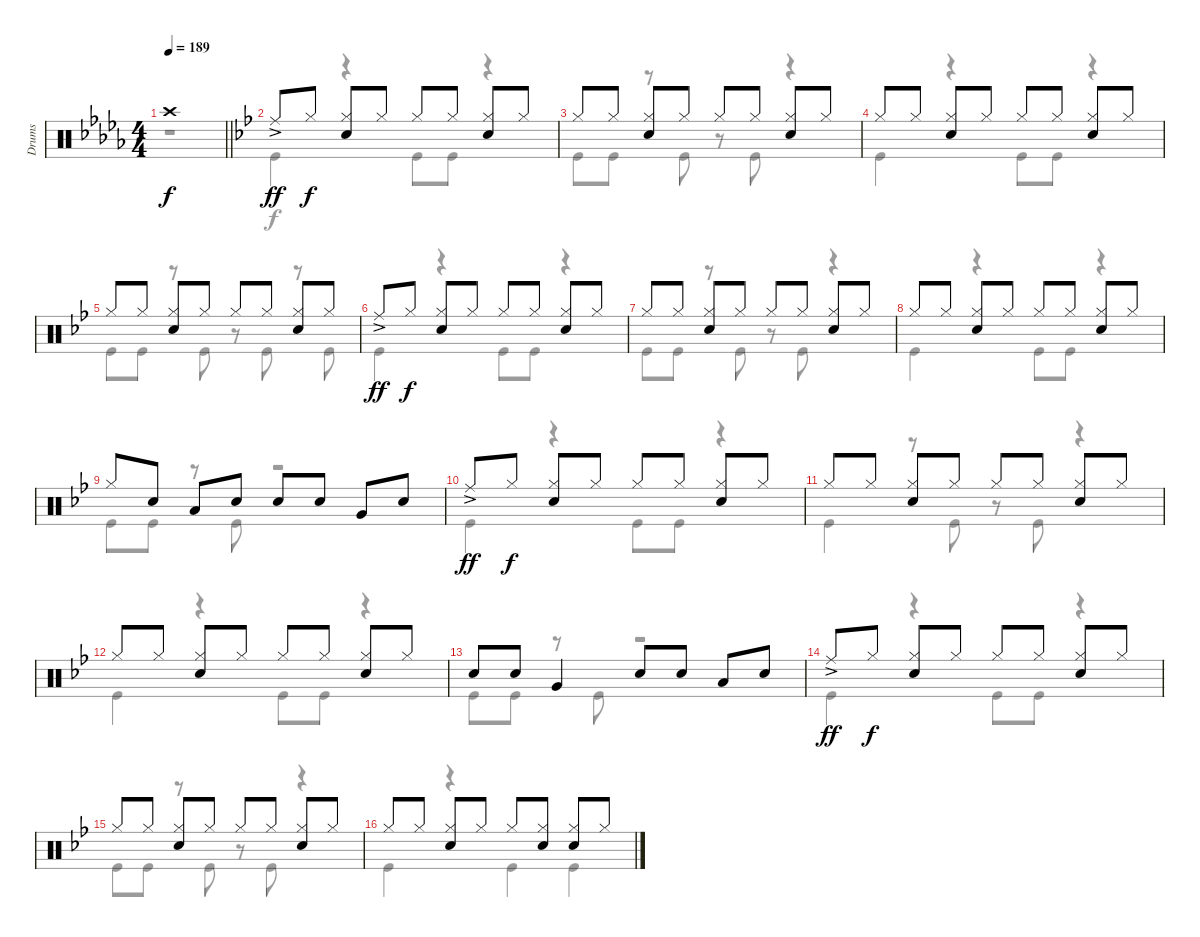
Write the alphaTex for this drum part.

\track ("Drums" "Drums") {instrument percussion}
\staff {score}
\articulation defaults
\voice
\ts (4 4)
\tempo 189
\clef neutral
\barLineRight lightlight
\ks db "Crash high (hit)"{t}.1{dy f}
|
\ks bb "Ride (middle)"{ac}.8{dy ff} "Hi-Hat (closed)".8{dy f}
("Hi-Hat (closed)" "Snare (hit) 2").8 "Hi-Hat (closed)".8 "Hi-Hat (closed)".8 "Hi-Hat (closed)".8 ("Hi-Hat (closed)" "Snare (hit) 2").8 "Hi-Hat (closed)".8 |
"Hi-Hat (closed)".8 "Hi-Hat (closed)".8 ("Hi-Hat (closed)" "Snare (hit) 2").8 "Hi-Hat (closed)".8 "Hi-Hat (closed)".8 "Hi-Hat (closed)".8 ("Hi-Hat (closed)" "Snare (hit) 2").8 "Hi-Hat (closed)".8 |
"Hi-Hat (closed)".8 "Hi-Hat (closed)".8 ("Hi-Hat (closed)" "Snare (hit) 2").8 "Hi-Hat (closed)".8 "Hi-Hat (closed)".8 "Hi-Hat (closed)".8 ("Hi-Hat (closed)" "Snare (hit) 2").8 "Hi-Hat (closed)".8 |
"Hi-Hat (closed)".8 "Hi-Hat (closed)".8 ("Hi-Hat (closed)" "Snare (hit) 2").8 "Hi-Hat (closed)".8 "Hi-Hat (closed)".8 "Hi-Hat (closed)".8 ("Hi-Hat (closed)" "Snare (hit) 2").8 "Hi-Hat (closed)".8 |
"Ride (middle)"{ac}.8{dy ff} "Hi-Hat (closed)".8{dy f} ("Hi-Hat (closed)" "Snare (hit) 2").8 "Hi-Hat (closed)".8 "Hi-Hat (closed)".8 "Hi-Hat (closed)".8 ("Hi-Hat (closed)" "Snare (hit) 2").8 "Hi-Hat (closed)".8 |
"Hi-Hat (closed)".8 "Hi-Hat (closed)".8 ("Hi-Hat (closed)" "Snare (hit) 2").8 "Hi-Hat (closed)".8 "Hi-Hat (closed)".8 "Hi-Hat (closed)".8 ("Hi-Hat (closed)" "Snare (hit) 2").8 "Hi-Hat (closed)".8 |
"Hi-Hat (closed)".8 "Hi-Hat (closed)".8 ("Hi-Hat (closed)" "Snare (hit) 2").8 "Hi-Hat (closed)".8 "Hi-Hat (closed)".8 "Hi-Hat (closed)".8 ("Hi-Hat (closed)" "Snare (hit) 2").8 "Hi-Hat (closed)".8 |
"Hi-Hat (closed)".8 "Snare (hit) 2".8 "Low Tom (hit)".8 "Snare (hit) 2".8 "Snare (hit) 2".8 "Snare (hit) 2".8 "Very Low Tom (hit)".8 "Snare (hit) 2".8 |
"Ride (middle)"{ac}.8{dy ff} "Hi-Hat (closed)".8{dy f} ("Hi-Hat (closed)" "Snare (hit) 2").8 "Hi-Hat (closed)".8 "Hi-Hat (closed)".8 "Hi-Hat (closed)".8 ("Hi-Hat (closed)" "Snare (hit) 2").8 "Hi-Hat (closed)".8 |
"Hi-Hat (closed)".8 "Hi-Hat (closed)".8 ("Hi-Hat (closed)" "Snare (hit) 2").8 "Hi-Hat (closed)".8 "Hi-Hat (closed)".8 "Hi-Hat (closed)".8 ("Hi-Hat (closed)" "Snare (hit) 2").8 "Hi-Hat (closed)".8 |
"Hi-Hat (closed)".8 "Hi-Hat (closed)".8 ("Hi-Hat (closed)" "Snare (hit) 2").8 "Hi-Hat (closed)".8 "Hi-Hat (closed)".8 "Hi-Hat (closed)".8 ("Hi-Hat (closed)" "Snare (hit) 2").8 "Hi-Hat (closed)".8 |
"Snare (hit) 2".8 "Snare (hit) 2".8 "Very Low Tom (hit)".4 "Snare (hit) 2".8 "Snare (hit) 2".8 "Low Tom (hit)".8 "Snare (hit) 2".8 |
"Ride (middle)"{ac}.8{dy ff} "Hi-Hat (closed)".8{dy f} ("Hi-Hat (closed)" "Snare (hit) 2").8 "Hi-Hat (closed)".8 "Hi-Hat (closed)".8 "Hi-Hat (closed)".8 ("Hi-Hat (closed)" "Snare (hit) 2").8 "Hi-Hat (closed)".8 |
"Hi-Hat (closed)".8 "Hi-Hat (closed)".8 ("Hi-Hat (closed)" "Snare (hit) 2").8 "Hi-Hat (closed)".8 "Hi-Hat (closed)".8 "Hi-Hat (closed)".8 ("Hi-Hat (closed)" "Snare (hit) 2").8 "Hi-Hat (closed)".8 |
"Hi-Hat (closed)".8 "Hi-Hat (closed)".8 ("Hi-Hat (closed)" "Snare (hit) 2").8 "Hi-Hat (closed)".8 "Hi-Hat (closed)".8 ("Hi-Hat (closed)" "Snare (hit) 2").8 ("Hi-Hat (closed)" "Snare (hit) 2").8 "Hi-Hat (closed)".8
\voice
\clef neutral
\ottava regular
\simile none
\barLineRight lightlight
\ks db
r.1{dy f} |
\ks bb "Kick (hit)".4
r.4 "Kick (hit)".8 "Kick (hit)".8 r.4 |
"Kick (hit)".8 "Kick (hit)".8 r.8 "Kick (hit)".8 r.8 "Kick (hit)".8 r.4 |
"Kick (hit)".4 r.4 "Kick (hit)".8 "Kick (hit)".8 r.4 |
"Kick (hit)".8 "Kick (hit)".8 r.8 "Kick (hit)".8 r.8 "Kick (hit)".8 r.8 "Kick (hit)".8 |
"Kick (hit)".4 r.4 "Kick (hit)".8 "Kick (hit)".8 r.4 |
"Kick (hit)".8 "Kick (hit)".8 r.8 "Kick (hit)".8 r.8 "Kick (hit)".8 r.4 |
"Kick (hit)".4 r.4 "Kick (hit)".8 "Kick (hit)".8 r.4 |
"Kick (hit)".8 "Kick (hit)".8 r.8 "Kick (hit)".8 r.2 |
"Kick (hit)".4 r.4 "Kick (hit)".8 "Kick (hit)".8 r.4 |
"Kick (hit)".4 r.8 "Kick (hit)".8 r.8 "Kick (hit)".8 r.4 |
"Kick (hit)".4 r.4 "Kick (hit)".8 "Kick (hit)".8 r.4 |
"Kick (hit)".8 "Kick (hit)".8 r.8 "Kick (hit)".8 r.2 |
"Kick (hit)".4 r.4 "Kick (hit)".8 "Kick (hit)".8 r.4 |
"Kick (hit)".8 "Kick (hit)".8 r.8 "Kick (hit)".8 r.8 "Kick (hit)".8 r.4 |
"Kick (hit)".4 r.4 "Kick (hit)".4 "Kick (hit)".4
